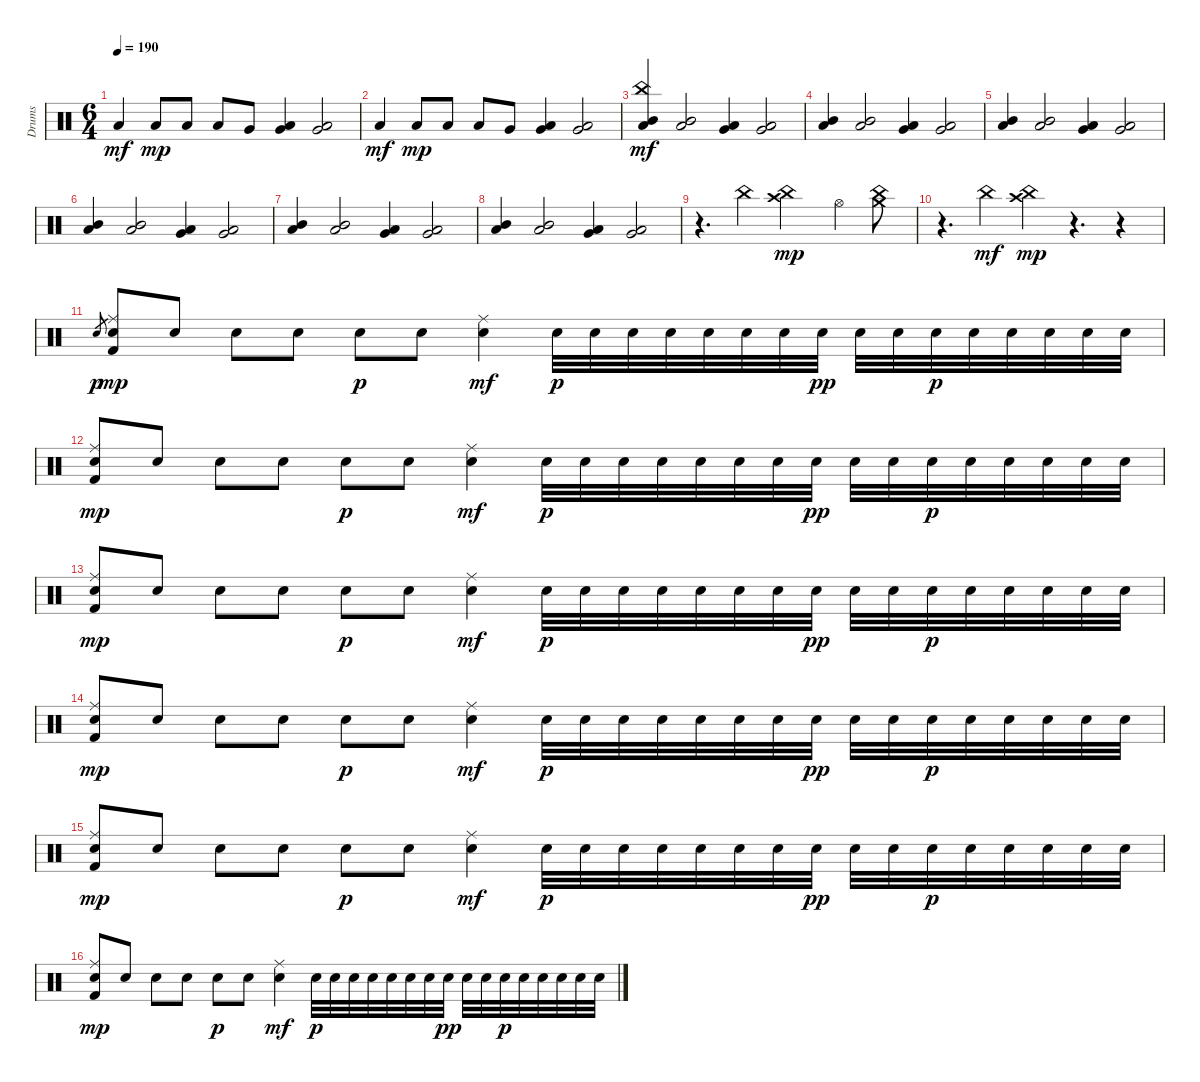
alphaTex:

\track ("Drums" "Drums") {instrument percussion}
\staff {score}
\articulation defaults
\ts (6 4)
\tempo 190
\clef neutral
\ks c "Low Tom (hit)".4{dy mf} "Low Tom (hit)".8{dy mp} "Low Tom (hit)".8 "Low Tom (hit)".8 "Very Low Tom (hit)".8
("Very Low Tom (hit)" "Low Floor Tom (hit)").4 ("Very Low Tom (hit)" "Low Floor Tom (hit)").2 |
"Low Tom (hit)".4{dy mf} "Low Tom (hit)".8{dy mp} "Low Tom (hit)".8 "Low Tom (hit)".8 "Very Low Tom (hit)".8 ("Very Low Tom (hit)" "Low Floor Tom (hit)").4 ("Very Low Tom (hit)" "Low Floor Tom (hit)").2 |
("China (hit)" "Mid Tom (hit)" "Low Tom (hit)").4{dy mf balance 13} ("Mid Tom (hit)" "Low Tom (hit)").2 ("Low Tom (hit)" "Very Low Tom (hit)").4{balance 3} ("Low Tom (hit)" "Very Low Tom (hit)").2 |
("Mid Tom (hit)" "Low Tom (hit)").4{balance 13} ("Mid Tom (hit)" "Low Tom (hit)").2 ("Low Tom (hit)" "Very Low Tom (hit)").4{balance 3} ("Low Tom (hit)" "Very Low Tom (hit)").2 |
("Mid Tom (hit)" "Low Tom (hit)").4{balance 13} ("Mid Tom (hit)" "Low Tom (hit)").2 ("Low Tom (hit)" "Very Low Tom (hit)").4{balance 3} ("Low Tom (hit)" "Very Low Tom (hit)").2 |
("Mid Tom (hit)" "Low Tom (hit)").4{balance 13} ("Mid Tom (hit)" "Low Tom (hit)").2 ("Low Tom (hit)" "Very Low Tom (hit)").4{balance 3} ("Low Tom (hit)" "Very Low Tom (hit)").2 |
("Mid Tom (hit)" "Low Tom (hit)").4{balance 13} ("Mid Tom (hit)" "Low Tom (hit)").2 ("Low Tom (hit)" "Very Low Tom (hit)").4{balance 3} ("Low Tom (hit)" "Very Low Tom (hit)").2 |
("Mid Tom (hit)" "Low Tom (hit)").4{balance 13} ("Mid Tom (hit)" "Low Tom (hit)").2 ("Low Tom (hit)" "Very Low Tom (hit)").4{balance 3} ("Low Tom (hit)" "Very Low Tom (hit)").2 |
r.4{d balance 12} "China (hit)".4 ("China (hit)" "Crash high (hit)").2{dy mp} "Hi-Hat (open)".4 ("China (hit)" "Crash medium (hit)").8 |
r.4{d} "China (hit)".4{dy mf} ("China (hit)" "Crash high (hit)").4{dy mp} r.4{d} r.4 |
"Electric Snare (hit)".8{gr dy p} ("Ride (middle)" "Electric Snare (hit)" "Kick (hit) 2").8{dy mp balance 8} "Electric Snare (hit)".8 "Electric Snare (hit)".8 "Electric Snare (hit)".8 "Electric Snare (hit)".8{dy p} "Electric Snare (hit)".8 ("Ride (middle)" "Electric Snare (hit)").4{dy mf} "Electric Snare (hit)".32{dy p} "Electric Snare (hit)".32 "Electric Snare (hit)".32 "Electric Snare (hit)".32 "Electric Snare (hit)".32 "Electric Snare (hit)".32 "Electric Snare (hit)".32 "Electric Snare (hit)".32{dy pp} "Electric Snare (hit)".32 "Electric Snare (hit)".32 "Electric Snare (hit)".32{dy p} "Electric Snare (hit)".32 "Electric Snare (hit)".32 "Electric Snare (hit)".32 "Electric Snare (hit)".32 "Electric Snare (hit)".32 |
("Ride (middle)" "Electric Snare (hit)" "Kick (hit) 2").8{dy mp} "Electric Snare (hit)".8 "Electric Snare (hit)".8 "Electric Snare (hit)".8 "Electric Snare (hit)".8{dy p} "Electric Snare (hit)".8 ("Ride (middle)" "Electric Snare (hit)").4{dy mf} "Electric Snare (hit)".32{dy p} "Electric Snare (hit)".32 "Electric Snare (hit)".32 "Electric Snare (hit)".32 "Electric Snare (hit)".32 "Electric Snare (hit)".32 "Electric Snare (hit)".32 "Electric Snare (hit)".32{dy pp} "Electric Snare (hit)".32 "Electric Snare (hit)".32 "Electric Snare (hit)".32{dy p} "Electric Snare (hit)".32 "Electric Snare (hit)".32 "Electric Snare (hit)".32 "Electric Snare (hit)".32 "Electric Snare (hit)".32 |
("Ride (middle)" "Electric Snare (hit)" "Kick (hit) 2").8{dy mp} "Electric Snare (hit)".8 "Electric Snare (hit)".8 "Electric Snare (hit)".8 "Electric Snare (hit)".8{dy p} "Electric Snare (hit)".8 ("Ride (middle)" "Electric Snare (hit)").4{dy mf} "Electric Snare (hit)".32{dy p} "Electric Snare (hit)".32 "Electric Snare (hit)".32 "Electric Snare (hit)".32 "Electric Snare (hit)".32 "Electric Snare (hit)".32 "Electric Snare (hit)".32 "Electric Snare (hit)".32{dy pp} "Electric Snare (hit)".32 "Electric Snare (hit)".32 "Electric Snare (hit)".32{dy p} "Electric Snare (hit)".32 "Electric Snare (hit)".32 "Electric Snare (hit)".32 "Electric Snare (hit)".32 "Electric Snare (hit)".32 |
("Ride (middle)" "Electric Snare (hit)" "Kick (hit) 2").8{dy mp} "Electric Snare (hit)".8 "Electric Snare (hit)".8 "Electric Snare (hit)".8 "Electric Snare (hit)".8{dy p} "Electric Snare (hit)".8 ("Ride (middle)" "Electric Snare (hit)").4{dy mf} "Electric Snare (hit)".32{dy p} "Electric Snare (hit)".32 "Electric Snare (hit)".32 "Electric Snare (hit)".32 "Electric Snare (hit)".32 "Electric Snare (hit)".32 "Electric Snare (hit)".32 "Electric Snare (hit)".32{dy pp} "Electric Snare (hit)".32 "Electric Snare (hit)".32 "Electric Snare (hit)".32{dy p} "Electric Snare (hit)".32 "Electric Snare (hit)".32 "Electric Snare (hit)".32 "Electric Snare (hit)".32 "Electric Snare (hit)".32 |
("Ride (middle)" "Electric Snare (hit)" "Kick (hit) 2").8{dy mp} "Electric Snare (hit)".8 "Electric Snare (hit)".8 "Electric Snare (hit)".8 "Electric Snare (hit)".8{dy p} "Electric Snare (hit)".8 ("Ride (middle)" "Electric Snare (hit)").4{dy mf} "Electric Snare (hit)".32{dy p} "Electric Snare (hit)".32 "Electric Snare (hit)".32 "Electric Snare (hit)".32 "Electric Snare (hit)".32 "Electric Snare (hit)".32 "Electric Snare (hit)".32 "Electric Snare (hit)".32{dy pp} "Electric Snare (hit)".32 "Electric Snare (hit)".32 "Electric Snare (hit)".32{dy p} "Electric Snare (hit)".32 "Electric Snare (hit)".32 "Electric Snare (hit)".32 "Electric Snare (hit)".32 "Electric Snare (hit)".32 |
("Ride (middle)" "Electric Snare (hit)" "Kick (hit) 2").8{dy mp} "Electric Snare (hit)".8 "Electric Snare (hit)".8 "Electric Snare (hit)".8 "Electric Snare (hit)".8{dy p} "Electric Snare (hit)".8 ("Ride (middle)" "Electric Snare (hit)").4{dy mf} "Electric Snare (hit)".32{dy p} "Electric Snare (hit)".32 "Electric Snare (hit)".32 "Electric Snare (hit)".32 "Electric Snare (hit)".32 "Electric Snare (hit)".32 "Electric Snare (hit)".32 "Electric Snare (hit)".32{dy pp} "Electric Snare (hit)".32 "Electric Snare (hit)".32 "Electric Snare (hit)".32{dy p} "Electric Snare (hit)".32 "Electric Snare (hit)".32 "Electric Snare (hit)".32 "Electric Snare (hit)".32 "Electric Snare (hit)".32
